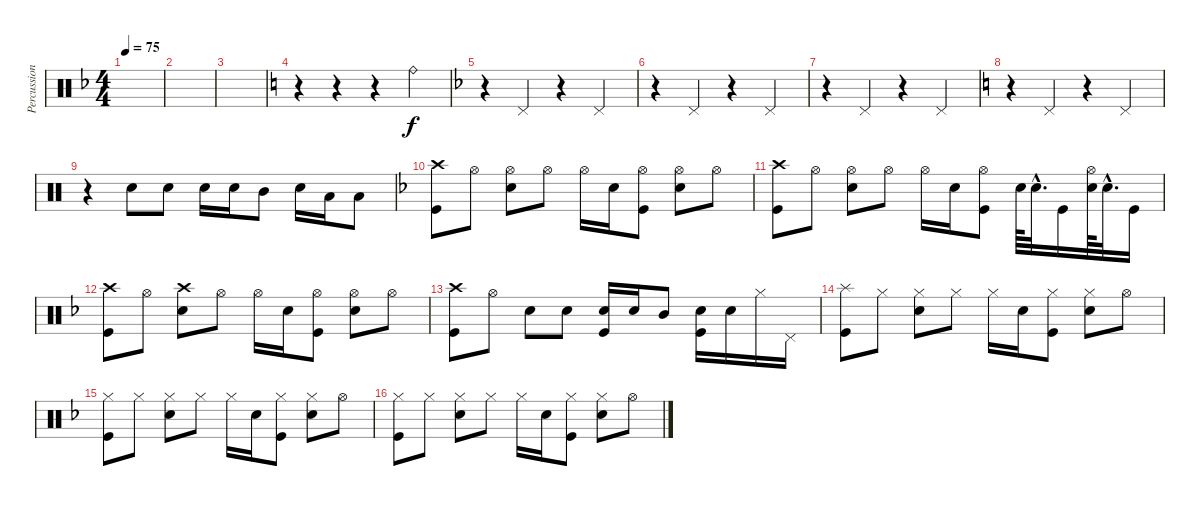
\track ("Percussion" "Percussion") {instrument percussion}
\staff {score}
\articulation defaults
\ts (4 4)
\tempo 75
\clef neutral
\ks f
|
|
|
\ks c
r.4 r.4 r.4 "Ride (bell)".4 |
\ks f
r.4 "Pedal Hi-Hat (hit)".4 r.4 "Pedal Hi-Hat (hit)".4 |
r.4 "Pedal Hi-Hat (hit)".4 r.4 "Pedal Hi-Hat (hit)".4 |
r.4 "Pedal Hi-Hat (hit)".4 r.4 "Pedal Hi-Hat (hit)".4 |
\ks c
r.4 "Pedal Hi-Hat (hit)".4 r.4 "Pedal Hi-Hat (hit)".4 |
r.4 "Electric Snare (hit)".8 "Electric Snare (hit)".8 "Electric Snare (hit)".16 "Electric Snare (hit)".16 "Mid Tom (hit)".8 "Electric Snare (hit)".16 "Low Tom (hit)".16 "Low Floor Tom (hit)".8 |
\ks f
("Crash high (hit)" "Kick (hit)").8 "Hi-Hat (open)".8 ("Hi-Hat (open)" "Electric Snare (hit)").8 "Hi-Hat (open)".8 "Hi-Hat (open)".16 "Electric Snare (hit)".16 ("Hi-Hat (open)" "Kick (hit)").8 ("Hi-Hat (open)" "Electric Snare (hit)").8 "Hi-Hat (open)".8 |
("Crash high (hit)" "Kick (hit)").8 "Hi-Hat (open)".8 ("Hi-Hat (open)" "Electric Snare (hit)").8 "Hi-Hat (open)".8 "Hi-Hat (open)".16 "Electric Snare (hit)".16 ("Hi-Hat (open)" "Kick (hit)").8 "Electric Snare (hit)".64 "Electric Snare (hit)"{hac}.32{d} "Kick (hit)".16 ("Hi-Hat (open)" "Electric Snare (hit)").64 "Electric Snare (hit)"{hac}.32{d} "Kick (hit)".16 |
("Crash high (hit)" "Kick (hit)").8 "Hi-Hat (open)".8 ("Crash high (hit)" "Electric Snare (hit)").8 "Hi-Hat (open)".8 "Hi-Hat (open)".16 "Electric Snare (hit)".16 ("Hi-Hat (open)" "Kick (hit)").8 ("Hi-Hat (open)" "Electric Snare (hit)").8 "Hi-Hat (open)".8 |
("Crash high (hit)" "Kick (hit)").8 "Hi-Hat (open)".8 "Electric Snare (hit)".8 "Electric Snare (hit)".8 ("Electric Snare (hit)" "Kick (hit)").16 "Electric Snare (hit)".16 "Mid Tom (hit)".8 ("Electric Snare (hit)" "Kick (hit)").16 "Electric Snare (hit)".16 "Hi-Hat (closed)".16 "Pedal Hi-Hat (hit)".16 |
("Splash (hit)" "Kick (hit)").8 "Hi-Hat (closed)".8 ("Hi-Hat (closed)" "Electric Snare (hit)").8 "Hi-Hat (closed)".8 "Hi-Hat (closed)".16 "Electric Snare (hit)".16 ("Hi-Hat (closed)" "Kick (hit)").8 ("Hi-Hat (closed)" "Electric Snare (hit)").8 "Hi-Hat (open)".8 |
("Hi-Hat (closed)" "Kick (hit)").8 "Hi-Hat (closed)".8 ("Hi-Hat (closed)" "Electric Snare (hit)").8 "Hi-Hat (closed)".8 "Hi-Hat (closed)".16 "Electric Snare (hit)".16 ("Hi-Hat (closed)" "Kick (hit)").8 ("Hi-Hat (closed)" "Electric Snare (hit)").8 "Hi-Hat (open)".8 |
("Hi-Hat (closed)" "Kick (hit)").8 "Hi-Hat (closed)".8 ("Hi-Hat (closed)" "Electric Snare (hit)").8 "Hi-Hat (closed)".8 "Hi-Hat (closed)".16 "Electric Snare (hit)".16 ("Hi-Hat (closed)" "Kick (hit)").8 ("Hi-Hat (closed)" "Electric Snare (hit)").8 "Hi-Hat (open)".8
